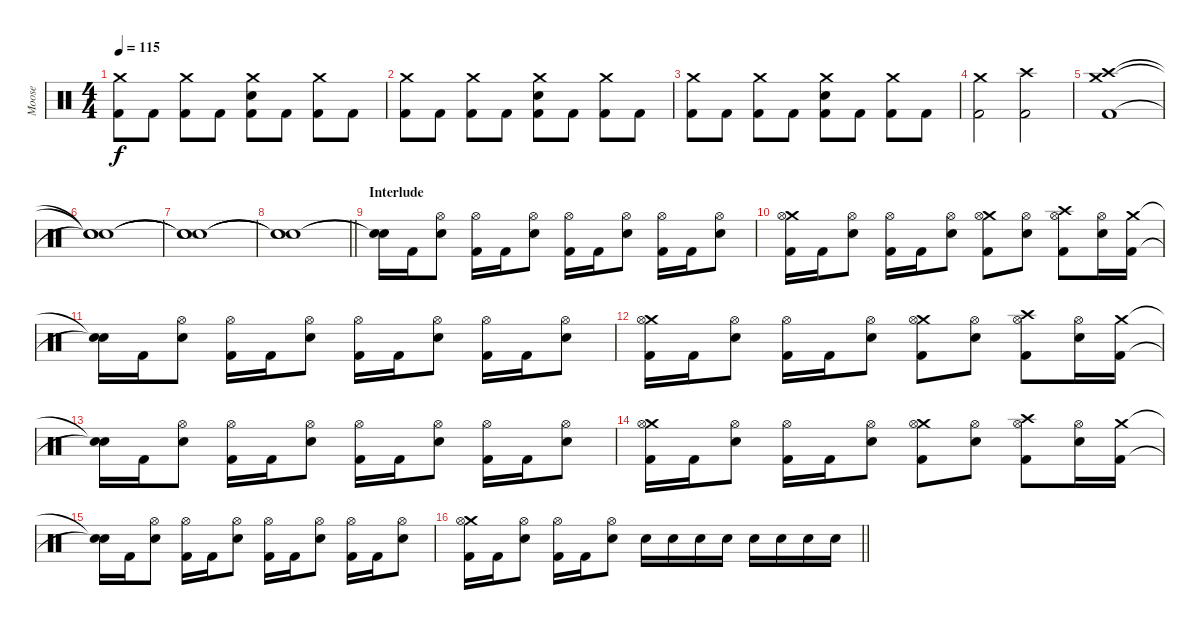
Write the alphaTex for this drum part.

\track ("Moose" "Moose") {instrument percussion}
\staff {score}
\articulation defaults
\ts (4 4)
\tempo 115
\clef neutral
\ks c
("Crash medium (hit)" "Kick (hit) 2").8{dy f} "Kick (hit) 2".8 ("Crash medium (hit)" "Kick (hit) 2").8 "Kick (hit) 2".8 ("Crash medium (hit)" "Electric Snare (hit)" "Kick (hit) 2").8 "Kick (hit) 2".8 ("Crash medium (hit)" "Kick (hit) 2").8 "Kick (hit) 2".8 |
("Crash medium (hit)" "Kick (hit) 2").8 "Kick (hit) 2".8 ("Crash medium (hit)" "Kick (hit) 2").8 "Kick (hit) 2".8 ("Crash medium (hit)" "Electric Snare (hit)" "Kick (hit) 2").8 "Kick (hit) 2".8 ("Crash medium (hit)" "Kick (hit) 2").8 "Kick (hit) 2".8 |
("Crash medium (hit)" "Kick (hit) 2").8 "Kick (hit) 2".8 ("Crash medium (hit)" "Kick (hit) 2").8 "Kick (hit) 2".8 ("Crash medium (hit)" "Electric Snare (hit)" "Kick (hit) 2").8 "Kick (hit) 2".8 ("Crash medium (hit)" "Kick (hit) 2").8 "Kick (hit) 2".8 |
("Crash medium (hit)" "Kick (hit) 2").2 ("Crash high (hit)" "Kick (hit) 2").2 |
("Crash medium (hit)" "Crash high (hit)" "Kick (hit) 2").1 |
("Snare (hit)"{t} "Snare (hit)"{t} "Snare (hit)"{t}).1 |
("Snare (hit)"{t} "Snare (hit)"{t} "Snare (hit)"{t}).1 |
\barLineRight lightlight
("Snare (hit)"{t} "Snare (hit)"{t} "Snare (hit)"{t}).1 |
\section ("" "Interlude")
("Snare (hit)"{t} "Snare (hit)"{t}).16 "Kick (hit) 2".16 ("Hi-Hat (open)" "Electric Snare (hit)").8 ("Hi-Hat (open)" "Kick (hit) 2").16 "Kick (hit) 2".16 ("Hi-Hat (open)" "Electric Snare (hit)").8 ("Hi-Hat (open)" "Kick (hit) 2").16 "Kick (hit) 2".16 ("Hi-Hat (open)" "Electric Snare (hit)").8 ("Hi-Hat (open)" "Kick (hit) 2").16 "Kick (hit) 2".16 ("Hi-Hat (open)" "Electric Snare (hit)").8 |
("Crash medium (hit)" "Hi-Hat (open)" "Kick (hit) 2").16 "Kick (hit) 2".16 ("Hi-Hat (open)" "Electric Snare (hit)").8 ("Hi-Hat (open)" "Kick (hit) 2").16 "Kick (hit) 2".16 ("Hi-Hat (open)" "Electric Snare (hit)").8 ("Crash medium (hit)" "Hi-Hat (open)" "Kick (hit) 2").8 ("Hi-Hat (open)" "Electric Snare (hit)").8 ("Crash high (hit)" "Hi-Hat (open)" "Kick (hit) 2").8 ("Hi-Hat (open)" "Electric Snare (hit)").16 ("Crash medium (hit)" "Kick (hit) 2").16 |
("Snare (hit)"{t} "Snare (hit)"{t}).16 "Kick (hit) 2".16 ("Hi-Hat (open)" "Electric Snare (hit)").8 ("Hi-Hat (open)" "Kick (hit) 2").16 "Kick (hit) 2".16 ("Hi-Hat (open)" "Electric Snare (hit)").8 ("Hi-Hat (open)" "Kick (hit) 2").16 "Kick (hit) 2".16 ("Hi-Hat (open)" "Electric Snare (hit)").8 ("Hi-Hat (open)" "Kick (hit) 2").16 "Kick (hit) 2".16 ("Hi-Hat (open)" "Electric Snare (hit)").8 |
("Crash medium (hit)" "Hi-Hat (open)" "Kick (hit) 2").16 "Kick (hit) 2".16 ("Hi-Hat (open)" "Electric Snare (hit)").8 ("Hi-Hat (open)" "Kick (hit) 2").16 "Kick (hit) 2".16 ("Hi-Hat (open)" "Electric Snare (hit)").8 ("Crash medium (hit)" "Hi-Hat (open)" "Kick (hit) 2").8 ("Hi-Hat (open)" "Electric Snare (hit)").8 ("Crash high (hit)" "Hi-Hat (open)" "Kick (hit) 2").8 ("Hi-Hat (open)" "Electric Snare (hit)").16 ("Crash medium (hit)" "Kick (hit) 2").16 |
("Snare (hit)"{t} "Snare (hit)"{t}).16 "Kick (hit) 2".16 ("Hi-Hat (open)" "Electric Snare (hit)").8 ("Hi-Hat (open)" "Kick (hit) 2").16 "Kick (hit) 2".16 ("Hi-Hat (open)" "Electric Snare (hit)").8 ("Hi-Hat (open)" "Kick (hit) 2").16 "Kick (hit) 2".16 ("Hi-Hat (open)" "Electric Snare (hit)").8 ("Hi-Hat (open)" "Kick (hit) 2").16 "Kick (hit) 2".16 ("Hi-Hat (open)" "Electric Snare (hit)").8 |
("Crash medium (hit)" "Hi-Hat (open)" "Kick (hit) 2").16 "Kick (hit) 2".16 ("Hi-Hat (open)" "Electric Snare (hit)").8 ("Hi-Hat (open)" "Kick (hit) 2").16 "Kick (hit) 2".16 ("Hi-Hat (open)" "Electric Snare (hit)").8 ("Crash medium (hit)" "Hi-Hat (open)" "Kick (hit) 2").8 ("Hi-Hat (open)" "Electric Snare (hit)").8 ("Crash high (hit)" "Hi-Hat (open)" "Kick (hit) 2").8 ("Hi-Hat (open)" "Electric Snare (hit)").16 ("Crash medium (hit)" "Kick (hit) 2").16 |
("Snare (hit)"{t} "Snare (hit)"{t}).16 "Kick (hit) 2".16 ("Hi-Hat (open)" "Electric Snare (hit)").8 ("Hi-Hat (open)" "Kick (hit) 2").16 "Kick (hit) 2".16 ("Hi-Hat (open)" "Electric Snare (hit)").8 ("Hi-Hat (open)" "Kick (hit) 2").16 "Kick (hit) 2".16 ("Hi-Hat (open)" "Electric Snare (hit)").8 ("Hi-Hat (open)" "Kick (hit) 2").16 "Kick (hit) 2".16 ("Hi-Hat (open)" "Electric Snare (hit)").8 |
\barLineRight lightlight
("Crash medium (hit)" "Hi-Hat (open)" "Kick (hit) 2").16 "Kick (hit) 2".16 ("Hi-Hat (open)" "Electric Snare (hit)").8 ("Hi-Hat (open)" "Kick (hit) 2").16 "Kick (hit) 2".16 ("Hi-Hat (open)" "Electric Snare (hit)").8 "Electric Snare (hit)".16 "Electric Snare (hit)".16 "Electric Snare (hit)".16 "Electric Snare (hit)".16 "Electric Snare (hit)".16 "Electric Snare (hit)".16 "Electric Snare (hit)".16 "Electric Snare (hit)".16
